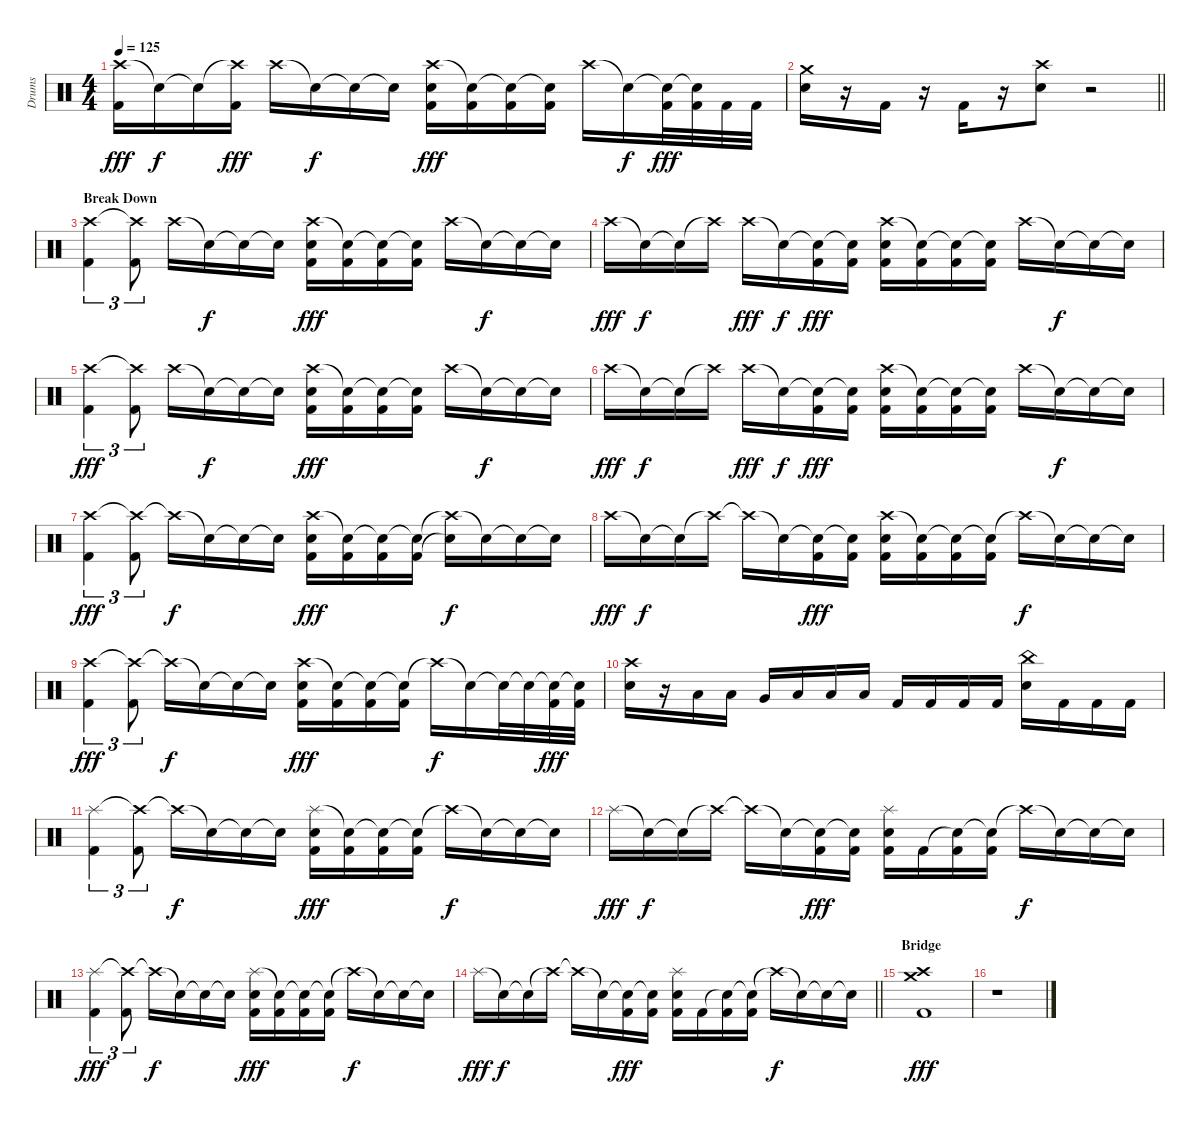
\track ("Drums" "Drums") {instrument percussion}
\staff {score}
\articulation defaults
\ts (4 4)
\tempo 125
\clef neutral
\ks c
("Crash high (hit)" "Kick (hit) 2").16{dy fff} "Snare (hit)"{t}.16{dy f} "Snare (hit)"{t}.16 ("Crash high (hit)"{t} "Kick (hit) 2").16{dy fff} "Crash high (hit)".16 "Snare (hit)"{t}.16{dy f} "Snare (hit)"{t}.16 "Snare (hit)"{t}.16 ("Crash high (hit)" "Electric Snare (hit)" "Kick (hit) 2").16{dy fff} ("Snare (hit)"{t} "Kick (hit) 2").16 ("Snare (hit)"{t} "Kick (hit) 2").16 ("Snare (hit)"{t} "Kick (hit) 2").16 "Crash high (hit)".16 "Snare (hit)"{t}.16{dy f} ("Snare (hit)"{t} "Kick (hit) 2").32{dy fff} ("Snare (hit)"{t} "Kick (hit) 2").32 "Kick (hit) 2".32 "Kick (hit) 2".32 |
\barLineRight lightlight
("Crash medium (hit)" "Electric Snare (hit)").16 r.16 "Kick (hit) 2".16 r.16 "Kick (hit) 2".16 r.16 ("Crash high (hit)" "Electric Snare (hit)").8 r.2 |
\section ("" "Break Down")
("Crash high (hit)" "Kick (hit) 2").4{tu (3 2)} ("Crash high (hit)"{t} "Kick (hit) 2").8{tu (3 2)} "Crash high (hit)".16 "Snare (hit)"{t}.16{dy f} "Snare (hit)"{t}.16 "Snare (hit)"{t}.16 ("Crash high (hit)" "Electric Snare (hit)" "Kick (hit) 2").16{dy fff} ("Snare (hit)"{t} "Kick (hit) 2").16 ("Snare (hit)"{t} "Kick (hit) 2").16 ("Snare (hit)"{t} "Kick (hit) 2").16 "Crash high (hit)".16 "Snare (hit)"{t}.16{dy f} "Snare (hit)"{t}.16 "Snare (hit)"{t}.16 |
"Crash high (hit)".16{dy fff} "Snare (hit)"{t}.16{dy f} "Snare (hit)"{t}.16 "Crash high (hit)"{t}.16 "Crash high (hit)".16{dy fff} "Snare (hit)"{t}.16{dy f} ("Snare (hit)"{t} "Kick (hit) 2").16{dy fff} ("Snare (hit)"{t} "Kick (hit) 2").16 ("Crash high (hit)" "Electric Snare (hit)" "Kick (hit) 2").16 ("Snare (hit)"{t} "Kick (hit) 2").16 ("Snare (hit)"{t} "Kick (hit) 2").16 ("Snare (hit)"{t} "Kick (hit) 2").16 "Crash high (hit)".16 "Snare (hit)"{t}.16{dy f} "Snare (hit)"{t}.16 "Snare (hit)"{t}.16 |
("Crash high (hit)" "Kick (hit) 2").4{tu (3 2) dy fff} ("Crash high (hit)"{t} "Kick (hit) 2").8{tu (3 2)} "Crash high (hit)".16 "Snare (hit)"{t}.16{dy f} "Snare (hit)"{t}.16 "Snare (hit)"{t}.16 ("Crash high (hit)" "Electric Snare (hit)" "Kick (hit) 2").16{dy fff} ("Snare (hit)"{t} "Kick (hit) 2").16 ("Snare (hit)"{t} "Kick (hit) 2").16 ("Snare (hit)"{t} "Kick (hit) 2").16 "Crash high (hit)".16 "Snare (hit)"{t}.16{dy f} "Snare (hit)"{t}.16 "Snare (hit)"{t}.16 |
"Crash high (hit)".16{dy fff} "Snare (hit)"{t}.16{dy f} "Snare (hit)"{t}.16 "Crash high (hit)"{t}.16 "Crash high (hit)".16{dy fff} "Snare (hit)"{t}.16{dy f} ("Snare (hit)"{t} "Kick (hit) 2").16{dy fff} ("Snare (hit)"{t} "Kick (hit) 2").16 ("Crash high (hit)" "Electric Snare (hit)" "Kick (hit) 2").16 ("Snare (hit)"{t} "Kick (hit) 2").16 ("Snare (hit)"{t} "Kick (hit) 2").16 ("Snare (hit)"{t} "Kick (hit) 2").16 "Crash high (hit)".16 "Snare (hit)"{t}.16{dy f} "Snare (hit)"{t}.16 "Snare (hit)"{t}.16 |
("Crash high (hit)" "Kick (hit) 2").4{tu (3 2) dy fff} ("Crash high (hit)"{t} "Kick (hit) 2").8{tu (3 2)} "Crash high (hit)"{t}.16{dy f} "Snare (hit)"{t}.16 "Snare (hit)"{t}.16 "Snare (hit)"{t}.16 ("Crash high (hit)" "Electric Snare (hit)" "Kick (hit) 2").16{dy fff} ("Snare (hit)"{t} "Kick (hit) 2").16 ("Snare (hit)"{t} "Kick (hit) 2").16 ("Snare (hit)"{t} "Kick (hit) 2").16 ("Crash high (hit)"{t} "Snare (hit)"{t}).16{dy f} "Snare (hit)"{t}.16 "Snare (hit)"{t}.16 "Snare (hit)"{t}.16 |
"Crash high (hit)".16{dy fff} "Snare (hit)"{t}.16{dy f} "Snare (hit)"{t}.16 "Crash high (hit)"{t}.16 "Crash high (hit)"{t}.16 "Snare (hit)"{t}.16 ("Snare (hit)"{t} "Kick (hit) 2").16{dy fff} ("Snare (hit)"{t} "Kick (hit) 2").16 ("Crash high (hit)" "Electric Snare (hit)" "Kick (hit) 2").16 ("Snare (hit)"{t} "Kick (hit) 2").16 ("Snare (hit)"{t} "Kick (hit) 2").16 ("Snare (hit)"{t} "Kick (hit) 2").16 "Crash high (hit)"{t}.16{dy f} "Snare (hit)"{t}.16 "Snare (hit)"{t}.16 "Snare (hit)"{t}.16 |
("Crash high (hit)" "Kick (hit) 2").4{tu (3 2) dy fff} ("Crash high (hit)"{t} "Kick (hit) 2").8{tu (3 2)} "Crash high (hit)"{t}.16{dy f} "Snare (hit)"{t}.16 "Snare (hit)"{t}.16 "Snare (hit)"{t}.16 ("Crash high (hit)" "Electric Snare (hit)" "Kick (hit) 2").16{dy fff} ("Snare (hit)"{t} "Kick (hit) 2").16 ("Snare (hit)"{t} "Kick (hit) 2").16 ("Snare (hit)"{t} "Kick (hit) 2").16 "Crash high (hit)"{t}.16{dy f} "Snare (hit)"{t}.16 "Snare (hit)"{t}.32 "Snare (hit)"{t}.32 ("Snare (hit)"{t} "Kick (hit) 2").32{dy fff} ("Snare (hit)"{t} "Kick (hit) 2").32 |
("Crash high (hit)" "Electric Snare (hit)").16 r.16 "Low Tom (hit)".16 "Low Tom (hit)".16 "Very Low Tom (hit)".16 "Low Floor Tom (hit)".16 "Low Floor Tom (hit)".16 "Low Floor Tom (hit)".16 "Kick (hit) 2".16 "Kick (hit) 2".16 "Kick (hit) 2".16 "Kick (hit) 2".16 ("China (hit)" "Electric Snare (hit)").16 "Kick (hit) 2".16 "Kick (hit) 2".16 "Kick (hit) 2".16 |
("Splash (hit)" "Kick (hit) 2").4{tu (3 2)} ("Crash high (hit)"{t} "Kick (hit) 2").8{tu (3 2)} "Crash high (hit)"{t}.16{dy f} "Snare (hit)"{t}.16 "Snare (hit)"{t}.16 "Snare (hit)"{t}.16 ("Splash (hit)" "Electric Snare (hit)" "Kick (hit) 2").16{dy fff} ("Snare (hit)"{t} "Kick (hit) 2").16 ("Snare (hit)"{t} "Kick (hit) 2").16 ("Snare (hit)"{t} "Kick (hit) 2").16 "Crash high (hit)"{t}.16{dy f} "Snare (hit)"{t}.16 "Snare (hit)"{t}.16 "Snare (hit)"{t}.16 |
"Splash (hit)".16{dy fff} "Snare (hit)"{t}.16{dy f} "Snare (hit)"{t}.16 "Crash high (hit)"{t}.16 "Crash high (hit)"{t}.16 "Snare (hit)"{t}.16 ("Snare (hit)"{t} "Kick (hit) 2").16{dy fff} ("Snare (hit)"{t} "Kick (hit) 2").16 ("Splash (hit)" "Electric Snare (hit)" "Kick (hit) 2").16 "Kick (hit) 2".16 ("Snare (hit)"{t} "Kick (hit) 2").16 ("Snare (hit)"{t} "Kick (hit) 2").16 "Crash high (hit)"{t}.16{dy f} "Snare (hit)"{t}.16 "Snare (hit)"{t}.16 "Snare (hit)"{t}.16 |
("Splash (hit)" "Kick (hit) 2").4{tu (3 2) dy fff} ("Crash high (hit)"{t} "Kick (hit) 2").8{tu (3 2)} "Crash high (hit)"{t}.16{dy f} "Snare (hit)"{t}.16 "Snare (hit)"{t}.16 "Snare (hit)"{t}.16 ("Splash (hit)" "Electric Snare (hit)" "Kick (hit) 2").16{dy fff} ("Snare (hit)"{t} "Kick (hit) 2").16 ("Snare (hit)"{t} "Kick (hit) 2").16 ("Snare (hit)"{t} "Kick (hit) 2").16 "Crash high (hit)"{t}.16{dy f} "Snare (hit)"{t}.16 "Snare (hit)"{t}.16 "Snare (hit)"{t}.16 |
\barLineRight lightlight "Splash (hit)".16{dy fff} "Snare (hit)"{t}.16{dy f} "Snare (hit)"{t}.16 "Crash high (hit)"{t}.16 "Crash high (hit)"{t}.16 "Snare (hit)"{t}.16
("Snare (hit)"{t} "Kick (hit) 2").16{dy fff} ("Snare (hit)"{t} "Kick (hit) 2").16 ("Splash (hit)" "Electric Snare (hit)" "Kick (hit) 2").16 "Kick (hit) 2".16 ("Snare (hit)"{t} "Kick (hit) 2").16 ("Snare (hit)"{t} "Kick (hit) 2").16 "Crash high (hit)"{t}.16{dy f} "Snare (hit)"{t}.16 "Snare (hit)"{t}.16 "Snare (hit)"{t}.16 |
\section ("" "Bridge")
("Crash medium (hit)" "Crash high (hit)" "Kick (hit) 2").1{dy fff} |
r.1
